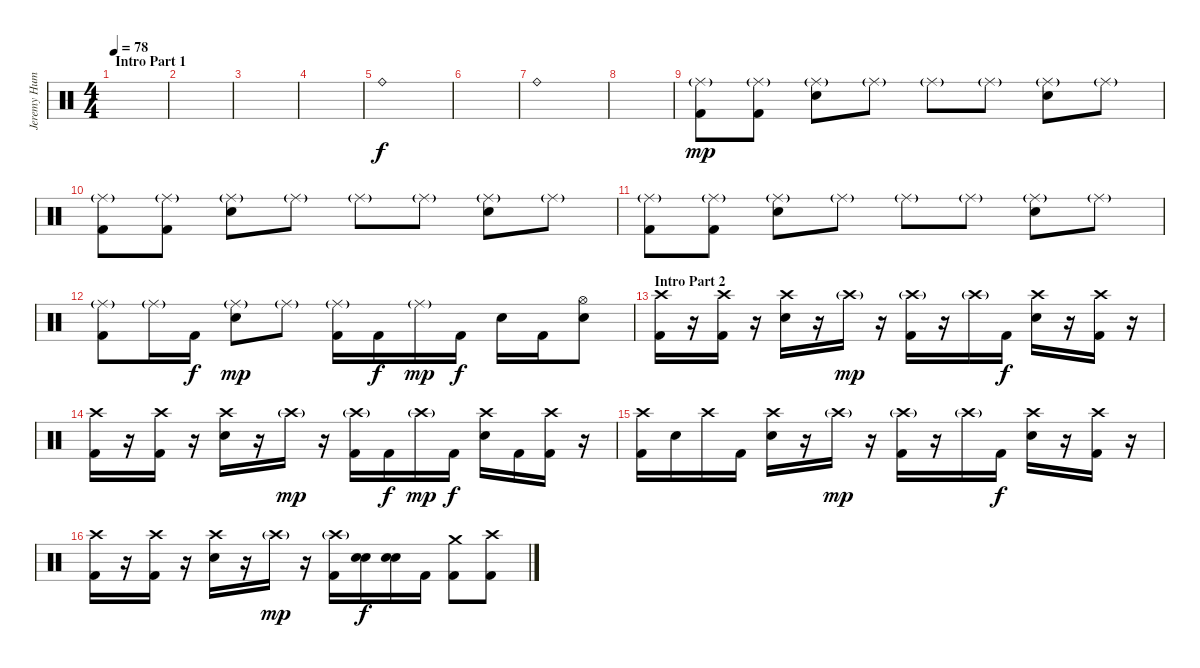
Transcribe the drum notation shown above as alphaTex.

\track ("Jeremy Hummel" "Jeremy Hum") {instrument percussion}
\staff {score}
\articulation defaults
\ts (4 4)
\section ("" "Intro Part 1")
\tempo 78
\clef neutral
\ks c
|
|
|
|
"Ride (bell)".1 |
|
"Ride (bell)".1 |
|
("Ride (middle)"{g} "Kick (hit) 2").8{dy mp} ("Ride (middle)"{g} "Kick (hit) 2").8 ("Ride (middle)"{g} "Snare (hit) 2").8 "Ride (middle)"{g}.8 "Ride (middle)"{g}.8 "Ride (middle)"{g}.8 ("Ride (middle)"{g} "Snare (hit) 2").8 "Ride (middle)"{g}.8 |
("Ride (middle)"{g} "Kick (hit) 2").8 ("Ride (middle)"{g} "Kick (hit) 2").8 ("Ride (middle)"{g} "Snare (hit) 2").8 "Ride (middle)"{g}.8 "Ride (middle)"{g}.8 "Ride (middle)"{g}.8 ("Ride (middle)"{g} "Snare (hit) 2").8 "Ride (middle)"{g}.8 |
("Ride (middle)"{g} "Kick (hit) 2").8 ("Ride (middle)"{g} "Kick (hit) 2").8 ("Ride (middle)"{g} "Snare (hit) 2").8 "Ride (middle)"{g}.8 "Ride (middle)"{g}.8 "Ride (middle)"{g}.8 ("Ride (middle)"{g} "Snare (hit) 2").8 "Ride (middle)"{g}.8 |
("Ride (middle)"{g} "Kick (hit) 2").8 "Ride (middle)"{g}.16 "Kick (hit) 2".16{dy f} ("Ride (middle)"{g} "Snare (hit) 2").8{dy mp} "Ride (middle)"{g}.8 ("Ride (middle)"{g} "Kick (hit) 2").16 "Kick (hit) 2".16{dy f} "Ride (middle)"{g}.16{dy mp} "Kick (hit) 2".16{dy f} "Snare (hit) 2".16 "Kick (hit) 2".16 ("Hi-Hat (open)" "Snare (hit) 2").8 |
\section ("" "Intro Part 2")
("Crash high (hit)" "Kick (hit) 2").16 r.16 ("Crash high (hit)" "Kick (hit) 2").16 r.16 ("Crash high (hit)" "Snare (hit) 2").16 r.16 "Crash high (hit)"{g}.16{dy mp} r.16 ("Crash high (hit)"{g} "Kick (hit) 2").16 r.16 "Crash high (hit)"{g}.16 "Kick (hit) 2".16{dy f} ("Crash high (hit)" "Snare (hit) 2").16 r.16 ("Crash high (hit)" "Kick (hit) 2").16 r.16 |
("Crash high (hit)" "Kick (hit) 2").16 r.16 ("Crash high (hit)" "Kick (hit) 2").16 r.16 ("Crash high (hit)" "Snare (hit) 2").16 r.16 "Crash high (hit)"{g}.16{dy mp} r.16 ("Crash high (hit)"{g} "Kick (hit) 2").16 "Kick (hit) 2".16{dy f} "Crash high (hit)"{g}.16{dy mp} "Kick (hit) 2".16{dy f} ("Crash high (hit)" "Snare (hit) 2").16 "Kick (hit) 2".16 ("Crash high (hit)" "Kick (hit) 2").16 r.16 |
("Crash high (hit)" "Kick (hit) 2").16 "Snare (hit) 2".16 "Crash high (hit)".16 "Kick (hit) 2".16 ("Crash high (hit)" "Snare (hit) 2").16 r.16 "Crash high (hit)"{g}.16{dy mp} r.16 ("Crash high (hit)"{g} "Kick (hit) 2").16 r.16 "Crash high (hit)"{g}.16 "Kick (hit) 2".16{dy f} ("Crash high (hit)" "Snare (hit) 2").16 r.16 ("Crash high (hit)" "Kick (hit) 2").16 r.16 |
("Crash high (hit)" "Kick (hit) 2").16 r.16 ("Crash high (hit)" "Kick (hit) 2").16 r.16 ("Crash high (hit)" "Snare (hit) 2").16 r.16 "Crash high (hit)"{g}.16{dy mp} r.16 ("Crash high (hit)"{g} "Kick (hit) 2").16 ("Snare (hit) 2" "Electric Snare (hit)").16{dy f} ("Snare (hit) 2" "Electric Snare (hit)").16 "Kick (hit) 2".16 ("Crash medium (hit)" "Kick (hit) 2").8 ("Crash high (hit)" "Kick (hit) 2").8
